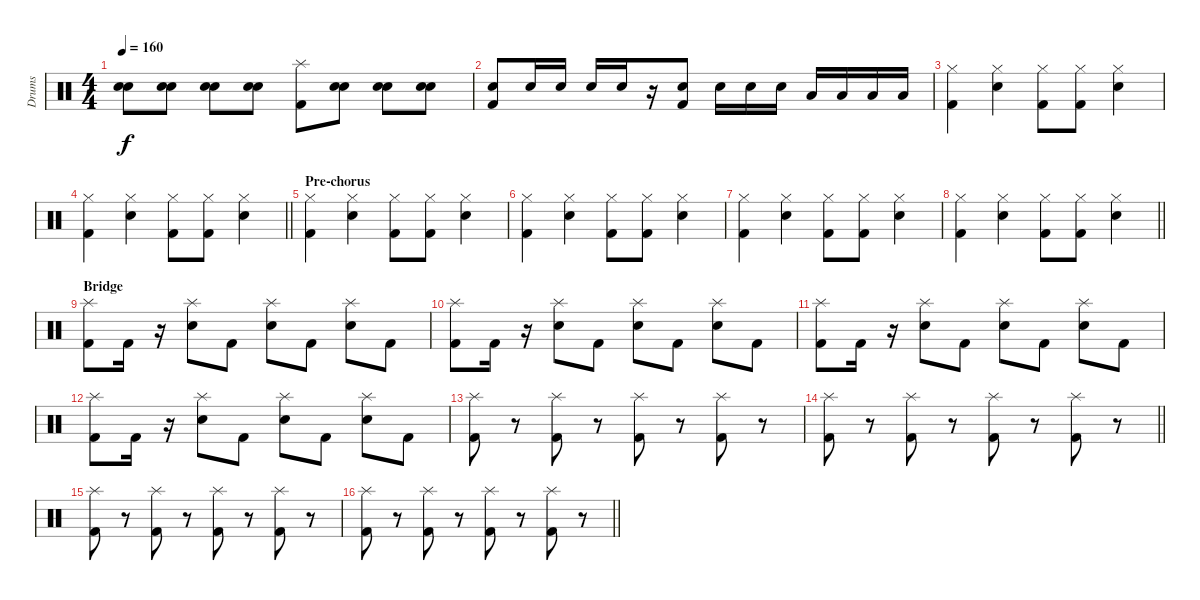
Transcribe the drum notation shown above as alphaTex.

\track ("Drums" "Drums") {instrument percussion}
\staff {score}
\articulation defaults
\ts (4 4)
\tempo 160
\clef neutral
\ks c
("Electric Snare (hit)" "Electric Snare (hit)").8{dy f} ("Electric Snare (hit)" "Electric Snare (hit)").8 ("Electric Snare (hit)" "Electric Snare (hit)").8 ("Electric Snare (hit)" "Electric Snare (hit)").8 ("Splash (hit)" "Kick (hit) 2").8 ("Electric Snare (hit)" "Electric Snare (hit)").8 ("Electric Snare (hit)" "Electric Snare (hit)").8 ("Electric Snare (hit)" "Electric Snare (hit)").8 |
("Electric Snare (hit)" "Kick (hit) 2").8 "Electric Snare (hit)".16 "Electric Snare (hit)".16 "Electric Snare (hit)".16 "Electric Snare (hit)".16 r.16 ("Electric Snare (hit)" "Kick (hit) 2").8 "Electric Snare (hit)".16 "Electric Snare (hit)".16 "Electric Snare (hit)".16 "Low Tom (hit)".16 "Low Tom (hit)".16 "Low Tom (hit)".16 "Low Tom (hit)".16 |
("Hi-Hat (closed)" "Kick (hit) 2").4 ("Hi-Hat (closed)" "Snare (hit) 2").4 ("Hi-Hat (closed)" "Kick (hit) 2").8 ("Hi-Hat (closed)" "Kick (hit) 2").8 ("Hi-Hat (closed)" "Snare (hit) 2").4 |
\barLineRight lightlight
("Hi-Hat (closed)" "Kick (hit) 2").4 ("Hi-Hat (closed)" "Snare (hit) 2").4 ("Hi-Hat (closed)" "Kick (hit) 2").8 ("Hi-Hat (closed)" "Kick (hit) 2").8 ("Hi-Hat (closed)" "Snare (hit) 2").4 |
\section ("" "Pre-chorus")
("Hi-Hat (closed)" "Kick (hit) 2").4 ("Hi-Hat (closed)" "Snare (hit) 2").4 ("Hi-Hat (closed)" "Kick (hit) 2").8 ("Hi-Hat (closed)" "Kick (hit) 2").8 ("Hi-Hat (closed)" "Snare (hit) 2").4 |
("Hi-Hat (closed)" "Kick (hit) 2").4 ("Hi-Hat (closed)" "Snare (hit) 2").4 ("Hi-Hat (closed)" "Kick (hit) 2").8 ("Hi-Hat (closed)" "Kick (hit) 2").8 ("Hi-Hat (closed)" "Snare (hit) 2").4 |
("Hi-Hat (closed)" "Kick (hit) 2").4 ("Hi-Hat (closed)" "Snare (hit) 2").4 ("Hi-Hat (closed)" "Kick (hit) 2").8 ("Hi-Hat (closed)" "Kick (hit) 2").8 ("Hi-Hat (closed)" "Snare (hit) 2").4 |
\barLineRight lightlight
("Hi-Hat (closed)" "Kick (hit) 2").4 ("Hi-Hat (closed)" "Snare (hit) 2").4 ("Hi-Hat (closed)" "Kick (hit) 2").8 ("Hi-Hat (closed)" "Kick (hit) 2").8 ("Hi-Hat (closed)" "Snare (hit) 2").4 |
\section ("" "Bridge")
("Splash (hit)" "Kick (hit) 2").8 "Kick (hit) 2".16 r.16 ("Splash (hit)" "Electric Snare (hit)").8 "Kick (hit) 2".8 ("Splash (hit)" "Electric Snare (hit)").8 "Kick (hit) 2".8 ("Splash (hit)" "Electric Snare (hit)").8 "Kick (hit) 2".8 |
("Splash (hit)" "Kick (hit) 2").8 "Kick (hit) 2".16 r.16 ("Splash (hit)" "Electric Snare (hit)").8 "Kick (hit) 2".8 ("Splash (hit)" "Electric Snare (hit)").8 "Kick (hit) 2".8 ("Splash (hit)" "Electric Snare (hit)").8 "Kick (hit) 2".8 |
("Splash (hit)" "Kick (hit) 2").8 "Kick (hit) 2".16 r.16 ("Splash (hit)" "Electric Snare (hit)").8 "Kick (hit) 2".8 ("Splash (hit)" "Electric Snare (hit)").8 "Kick (hit) 2".8 ("Splash (hit)" "Electric Snare (hit)").8 "Kick (hit) 2".8 |
("Splash (hit)" "Kick (hit) 2").8 "Kick (hit) 2".16 r.16 ("Splash (hit)" "Electric Snare (hit)").8 "Kick (hit) 2".8 ("Splash (hit)" "Electric Snare (hit)").8 "Kick (hit) 2".8 ("Splash (hit)" "Electric Snare (hit)").8 "Kick (hit) 2".8 |
("Splash (hit)" "Kick (hit) 2").8 r.8 ("Splash (hit)" "Kick (hit) 2").8 r.8 ("Splash (hit)" "Kick (hit) 2").8 r.8 ("Splash (hit)" "Kick (hit) 2").8 r.8 |
\barLineRight lightlight
("Splash (hit)" "Kick (hit) 2").8 r.8 ("Splash (hit)" "Kick (hit) 2").8 r.8 ("Splash (hit)" "Kick (hit) 2").8 r.8 ("Splash (hit)" "Kick (hit) 2").8 r.8 |
("Splash (hit)" "Kick (hit) 2").8 r.8 ("Splash (hit)" "Kick (hit) 2").8 r.8 ("Splash (hit)" "Kick (hit) 2").8 r.8 ("Splash (hit)" "Kick (hit) 2").8 r.8 |
\barLineRight lightlight
("Splash (hit)" "Kick (hit) 2").8 r.8 ("Splash (hit)" "Kick (hit) 2").8 r.8 ("Splash (hit)" "Kick (hit) 2").8 r.8 ("Splash (hit)" "Kick (hit) 2").8 r.8
